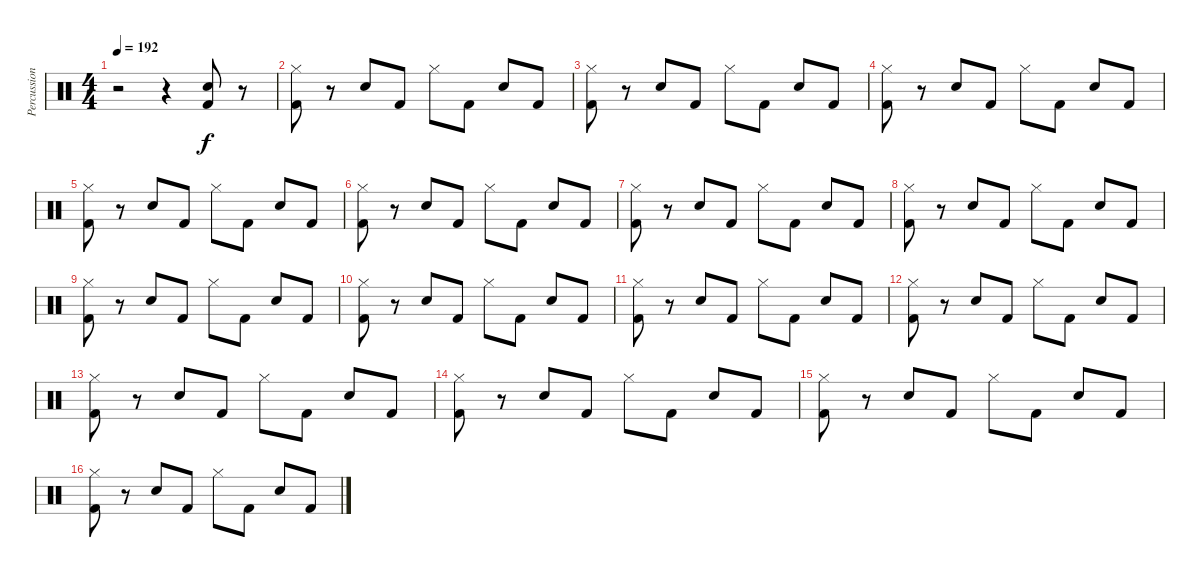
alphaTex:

\track ("Percussions" "Percussion") {instrument percussion}
\staff {score}
\articulation defaults
\ts (4 4)
\tempo 192
\clef neutral
\ks c
r.2{dy f} r.4 ("Snare (hit) 2" "Kick (hit) 2").8 r.8 |
("Kick (hit) 2" "Hi-Hat (closed)").8 r.8 "Snare (hit) 2".8 "Kick (hit) 2".8 "Hi-Hat (closed)".8 "Kick (hit) 2".8 "Snare (hit) 2".8 "Kick (hit) 2".8 |
("Kick (hit) 2" "Hi-Hat (closed)").8 r.8 "Snare (hit) 2".8 "Kick (hit) 2".8 "Hi-Hat (closed)".8 "Kick (hit) 2".8 "Snare (hit) 2".8 "Kick (hit) 2".8 |
("Kick (hit) 2" "Hi-Hat (closed)").8 r.8 "Snare (hit) 2".8 "Kick (hit) 2".8 "Hi-Hat (closed)".8 "Kick (hit) 2".8 "Snare (hit) 2".8 "Kick (hit) 2".8 |
("Kick (hit) 2" "Hi-Hat (closed)").8 r.8 "Snare (hit) 2".8 "Kick (hit) 2".8 "Hi-Hat (closed)".8 "Kick (hit) 2".8 "Snare (hit) 2".8 "Kick (hit) 2".8 |
("Kick (hit) 2" "Hi-Hat (closed)").8 r.8 "Snare (hit) 2".8 "Kick (hit) 2".8 "Hi-Hat (closed)".8 "Kick (hit) 2".8 "Snare (hit) 2".8 "Kick (hit) 2".8 |
("Kick (hit) 2" "Hi-Hat (closed)").8 r.8 "Snare (hit) 2".8 "Kick (hit) 2".8 "Hi-Hat (closed)".8 "Kick (hit) 2".8 "Snare (hit) 2".8 "Kick (hit) 2".8 |
("Kick (hit) 2" "Hi-Hat (closed)").8 r.8 "Snare (hit) 2".8 "Kick (hit) 2".8 "Hi-Hat (closed)".8 "Kick (hit) 2".8 "Snare (hit) 2".8 "Kick (hit) 2".8 |
("Kick (hit) 2" "Hi-Hat (closed)").8 r.8 "Snare (hit) 2".8 "Kick (hit) 2".8 "Hi-Hat (closed)".8 "Kick (hit) 2".8 "Snare (hit) 2".8 "Kick (hit) 2".8 |
("Kick (hit) 2" "Hi-Hat (closed)").8 r.8 "Snare (hit) 2".8 "Kick (hit) 2".8 "Hi-Hat (closed)".8 "Kick (hit) 2".8 "Snare (hit) 2".8 "Kick (hit) 2".8 |
("Kick (hit) 2" "Hi-Hat (closed)").8 r.8 "Snare (hit) 2".8 "Kick (hit) 2".8 "Hi-Hat (closed)".8 "Kick (hit) 2".8 "Snare (hit) 2".8 "Kick (hit) 2".8 |
("Kick (hit) 2" "Hi-Hat (closed)").8 r.8 "Snare (hit) 2".8 "Kick (hit) 2".8 "Hi-Hat (closed)".8 "Kick (hit) 2".8 "Snare (hit) 2".8 "Kick (hit) 2".8 |
("Kick (hit) 2" "Hi-Hat (closed)").8 r.8 "Snare (hit) 2".8 "Kick (hit) 2".8 "Hi-Hat (closed)".8 "Kick (hit) 2".8 "Snare (hit) 2".8 "Kick (hit) 2".8 |
("Kick (hit) 2" "Hi-Hat (closed)").8 r.8 "Snare (hit) 2".8 "Kick (hit) 2".8 "Hi-Hat (closed)".8 "Kick (hit) 2".8 "Snare (hit) 2".8 "Kick (hit) 2".8 |
("Kick (hit) 2" "Hi-Hat (closed)").8 r.8 "Snare (hit) 2".8 "Kick (hit) 2".8 "Hi-Hat (closed)".8 "Kick (hit) 2".8 "Snare (hit) 2".8 "Kick (hit) 2".8 |
("Kick (hit) 2" "Hi-Hat (closed)").8 r.8 "Snare (hit) 2".8 "Kick (hit) 2".8 "Hi-Hat (closed)".8 "Kick (hit) 2".8 "Snare (hit) 2".8 "Kick (hit) 2".8
